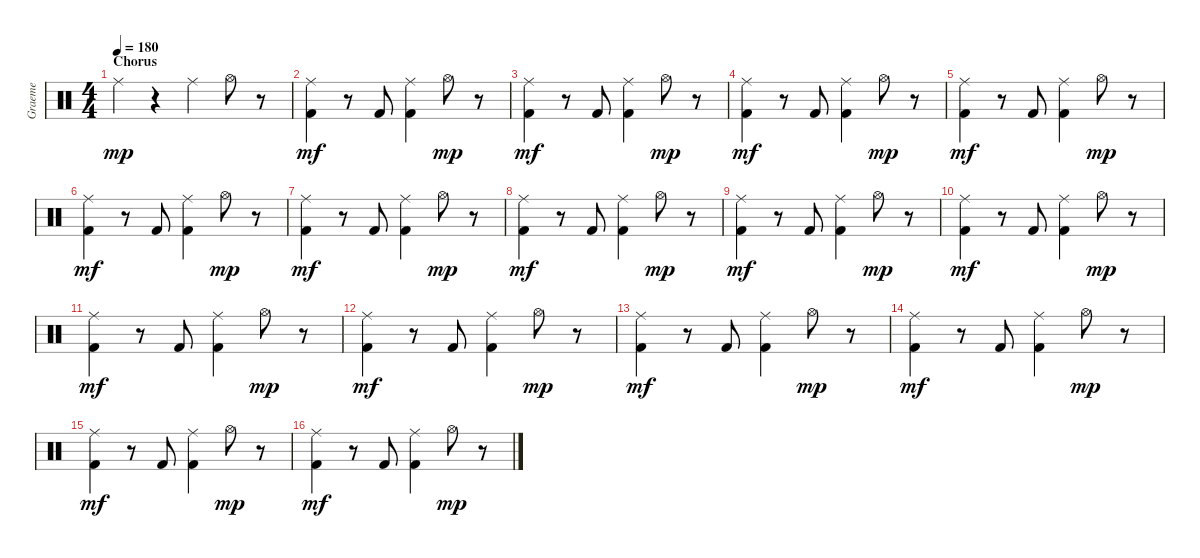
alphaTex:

\track ("Graeme" "Graeme") {instrument percussion}
\staff {score}
\articulation defaults
\ts (4 4)
\section ("" "Chorus")
\tempo 180
\clef neutral
\ks c "Ride (middle)".4{dy mp}
r.4 "Ride (middle)".4 "Hi-Hat (open)".8 r.8 |
("Ride (middle)" "Kick (hit) 2").4{dy mf} r.8 "Kick (hit) 2".8 ("Ride (middle)" "Kick (hit) 2").4 "Hi-Hat (open)".8{dy mp} r.8 |
("Ride (middle)" "Kick (hit) 2").4{dy mf} r.8 "Kick (hit) 2".8 ("Ride (middle)" "Kick (hit) 2").4 "Hi-Hat (open)".8{dy mp} r.8 |
("Ride (middle)" "Kick (hit) 2").4{dy mf} r.8 "Kick (hit) 2".8 ("Ride (middle)" "Kick (hit) 2").4 "Hi-Hat (open)".8{dy mp} r.8 |
("Ride (middle)" "Kick (hit) 2").4{dy mf} r.8 "Kick (hit) 2".8 ("Ride (middle)" "Kick (hit) 2").4 "Hi-Hat (open)".8{dy mp} r.8 |
("Ride (middle)" "Kick (hit) 2").4{dy mf} r.8 "Kick (hit) 2".8 ("Ride (middle)" "Kick (hit) 2").4 "Hi-Hat (open)".8{dy mp} r.8 |
("Ride (middle)" "Kick (hit) 2").4{dy mf} r.8 "Kick (hit) 2".8 ("Ride (middle)" "Kick (hit) 2").4 "Hi-Hat (open)".8{dy mp} r.8 |
("Ride (middle)" "Kick (hit) 2").4{dy mf} r.8 "Kick (hit) 2".8 ("Ride (middle)" "Kick (hit) 2").4 "Hi-Hat (open)".8{dy mp} r.8 |
("Ride (middle)" "Kick (hit) 2").4{dy mf} r.8 "Kick (hit) 2".8 ("Ride (middle)" "Kick (hit) 2").4 "Hi-Hat (open)".8{dy mp} r.8 |
("Ride (middle)" "Kick (hit) 2").4{dy mf} r.8 "Kick (hit) 2".8 ("Ride (middle)" "Kick (hit) 2").4 "Hi-Hat (open)".8{dy mp} r.8 |
("Ride (middle)" "Kick (hit) 2").4{dy mf} r.8 "Kick (hit) 2".8 ("Ride (middle)" "Kick (hit) 2").4 "Hi-Hat (open)".8{dy mp} r.8 |
("Ride (middle)" "Kick (hit) 2").4{dy mf} r.8 "Kick (hit) 2".8 ("Ride (middle)" "Kick (hit) 2").4 "Hi-Hat (open)".8{dy mp} r.8 |
("Ride (middle)" "Kick (hit) 2").4{dy mf} r.8 "Kick (hit) 2".8 ("Ride (middle)" "Kick (hit) 2").4 "Hi-Hat (open)".8{dy mp} r.8 |
("Ride (middle)" "Kick (hit) 2").4{dy mf} r.8 "Kick (hit) 2".8 ("Ride (middle)" "Kick (hit) 2").4 "Hi-Hat (open)".8{dy mp} r.8 |
("Ride (middle)" "Kick (hit) 2").4{dy mf} r.8 "Kick (hit) 2".8 ("Ride (middle)" "Kick (hit) 2").4 "Hi-Hat (open)".8{dy mp} r.8 |
("Ride (middle)" "Kick (hit) 2").4{dy mf} r.8 "Kick (hit) 2".8 ("Ride (middle)" "Kick (hit) 2").4 "Hi-Hat (open)".8{dy mp} r.8
